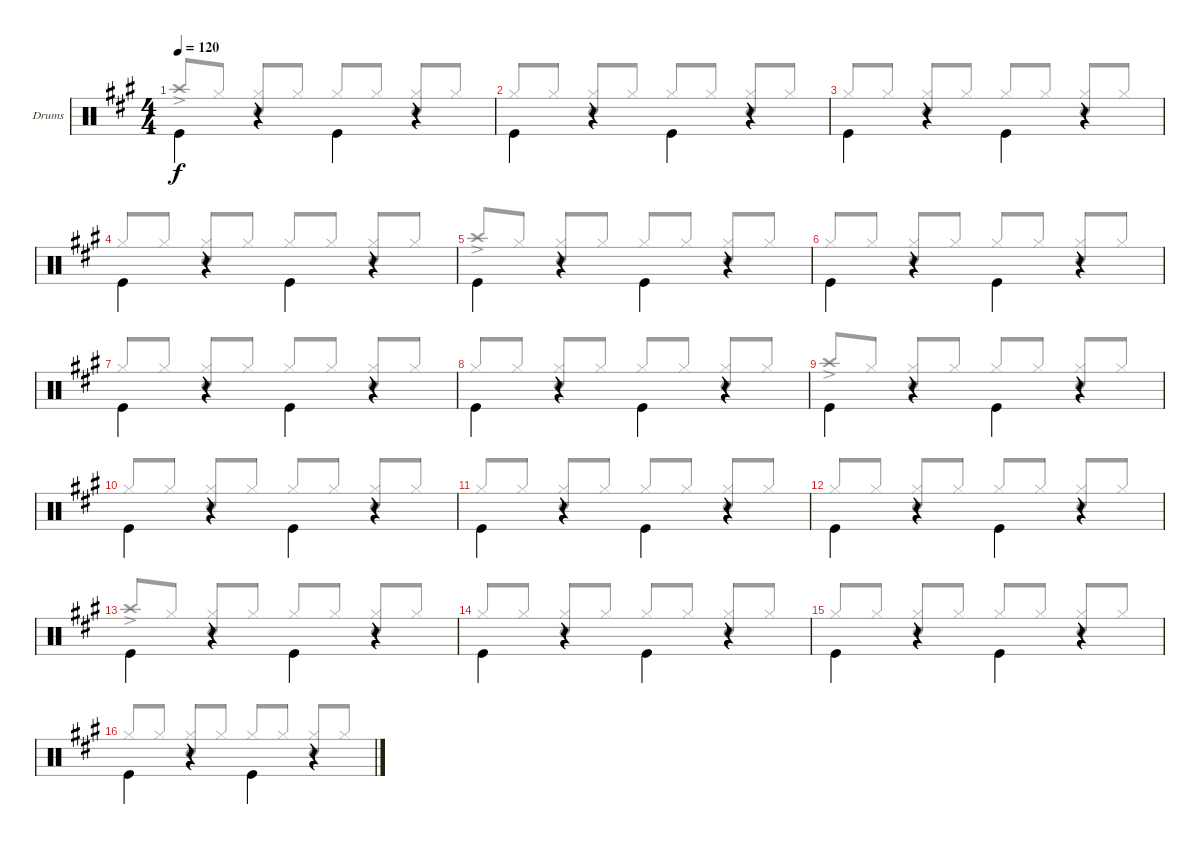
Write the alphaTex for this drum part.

\bracketExtendMode groupsimilarinstruments
\firstSystemTrackNameOrientation horizontal
\otherSystemsTrackNameOrientation horizontal
\track ("Drum" "Drums") {instrument percussion}
\staff {score}
\articulation defaults
\voice
\ts (4 4)
\tempo 120
\clef neutral
\scale
1.05801
\ks a "Kick (hit)".4{dy f beam invert}
r.4 "Kick (hit)".4{beam invert} r.4 |
\scale
0.941992 "Kick (hit)".4{beam invert} r.4 "Kick (hit)".4{beam invert} r.4 |
\scale
1.05801 "Kick (hit)".4{beam invert} r.4 "Kick (hit)".4{beam invert} r.4 |
\scale
0.941992 "Kick (hit)".4{beam invert} r.4 "Kick (hit)".4{beam invert} r.4 |
\scale
1.05801 "Kick (hit)".4{beam invert} r.4 "Kick (hit)".4{beam invert} r.4 |
\scale
0.941992 "Kick (hit)".4{beam invert} r.4 "Kick (hit)".4{beam invert} r.4 |
\scale
1.05801 "Kick (hit)".4{beam invert} r.4 "Kick (hit)".4{beam invert} r.4 |
\scale
0.941992 "Kick (hit)".4{beam invert} r.4 "Kick (hit)".4{beam invert} r.4 |
\scale
1.05801 "Kick (hit)".4{beam invert} r.4 "Kick (hit)".4{beam invert} r.4 |
\scale
0.941992 "Kick (hit)".4{beam invert} r.4 "Kick (hit)".4{beam invert} r.4 |
\scale
1.05801 "Kick (hit)".4{beam invert} r.4 "Kick (hit)".4{beam invert} r.4 |
\scale
0.941992 "Kick (hit)".4{beam invert} r.4 "Kick (hit)".4{beam invert} r.4 |
\scale
1.05801 "Kick (hit)".4{beam invert} r.4 "Kick (hit)".4{beam invert} r.4 |
\scale
0.941992 "Kick (hit)".4{beam invert} r.4 "Kick (hit)".4{beam invert} r.4 |
\scale
1.05801 "Kick (hit)".4{beam invert} r.4 "Kick (hit)".4{beam invert} r.4 |
\scale
0.941992 "Kick (hit)".4{beam invert} r.4 "Kick (hit)".4{beam invert} r.4
\voice
\clef neutral
\ottava regular
\simile none
\scale
1.05801
\ks a "Crash high (hit)"{ac}.8{dy f beam invert} "Hi-Hat (closed)".8
("Hi-Hat (closed)" "Snare (hit) 2").8{beam invert} "Hi-Hat (closed)".8 "Hi-Hat (closed)".8{beam invert} "Hi-Hat (closed)".8 ("Hi-Hat (closed)" "Snare (hit) 2").8{beam invert} "Hi-Hat (closed)".8 |
\scale
0.941992 "Hi-Hat (closed)".8{beam invert} "Hi-Hat (closed)".8 ("Hi-Hat (closed)" "Snare (hit) 2").8{beam invert} "Hi-Hat (closed)".8 "Hi-Hat (closed)".8{beam invert} "Hi-Hat (closed)".8 ("Hi-Hat (closed)" "Snare (hit) 2").8{beam invert} "Hi-Hat (closed)".8 |
\scale
1.05801 "Hi-Hat (closed)".8{beam invert} "Hi-Hat (closed)".8 ("Hi-Hat (closed)" "Snare (hit) 2").8{beam invert} "Hi-Hat (closed)".8 "Hi-Hat (closed)".8{beam invert} "Hi-Hat (closed)".8 ("Hi-Hat (closed)" "Snare (hit) 2").8{beam invert} "Hi-Hat (closed)".8 |
\scale
0.941992 "Hi-Hat (closed)".8{beam invert} "Hi-Hat (closed)".8 ("Hi-Hat (closed)" "Snare (hit) 2").8{beam invert} "Hi-Hat (closed)".8 "Hi-Hat (closed)".8{beam invert} "Hi-Hat (closed)".8 ("Hi-Hat (closed)" "Snare (hit) 2").8{beam invert} "Hi-Hat (closed)".8 |
\scale
1.05801 "Crash high (hit)"{ac}.8{beam invert} "Hi-Hat (closed)".8 ("Hi-Hat (closed)" "Snare (hit) 2").8{beam invert} "Hi-Hat (closed)".8 "Hi-Hat (closed)".8{beam invert} "Hi-Hat (closed)".8 ("Hi-Hat (closed)" "Snare (hit) 2").8{beam invert} "Hi-Hat (closed)".8 |
\scale
0.941992 "Hi-Hat (closed)".8{beam invert} "Hi-Hat (closed)".8 ("Hi-Hat (closed)" "Snare (hit) 2").8{beam invert} "Hi-Hat (closed)".8 "Hi-Hat (closed)".8{beam invert} "Hi-Hat (closed)".8 ("Hi-Hat (closed)" "Snare (hit) 2").8{beam invert} "Hi-Hat (closed)".8 |
\scale
1.05801 "Hi-Hat (closed)".8{beam invert} "Hi-Hat (closed)".8 ("Hi-Hat (closed)" "Snare (hit) 2").8{beam invert} "Hi-Hat (closed)".8 "Hi-Hat (closed)".8{beam invert} "Hi-Hat (closed)".8 ("Hi-Hat (closed)" "Snare (hit) 2").8{beam invert} "Hi-Hat (closed)".8 |
\scale
0.941992 "Hi-Hat (closed)".8{beam invert} "Hi-Hat (closed)".8 ("Hi-Hat (closed)" "Snare (hit) 2").8{beam invert} "Hi-Hat (closed)".8 "Hi-Hat (closed)".8{beam invert} "Hi-Hat (closed)".8 ("Hi-Hat (closed)" "Snare (hit) 2").8{beam invert} "Hi-Hat (closed)".8 |
\scale
1.05801 "Crash high (hit)"{ac}.8{beam invert} "Hi-Hat (closed)".8 ("Hi-Hat (closed)" "Snare (hit) 2").8{beam invert} "Hi-Hat (closed)".8 "Hi-Hat (closed)".8{beam invert} "Hi-Hat (closed)".8 ("Hi-Hat (closed)" "Snare (hit) 2").8{beam invert} "Hi-Hat (closed)".8 |
\scale
0.941992 "Hi-Hat (closed)".8{beam invert} "Hi-Hat (closed)".8 ("Hi-Hat (closed)" "Snare (hit) 2").8{beam invert} "Hi-Hat (closed)".8 "Hi-Hat (closed)".8{beam invert} "Hi-Hat (closed)".8 ("Hi-Hat (closed)" "Snare (hit) 2").8{beam invert} "Hi-Hat (closed)".8 |
\scale
1.05801 "Hi-Hat (closed)".8{beam invert} "Hi-Hat (closed)".8 ("Hi-Hat (closed)" "Snare (hit) 2").8{beam invert} "Hi-Hat (closed)".8 "Hi-Hat (closed)".8{beam invert} "Hi-Hat (closed)".8 ("Hi-Hat (closed)" "Snare (hit) 2").8{beam invert} "Hi-Hat (closed)".8 |
\scale
0.941992 "Hi-Hat (closed)".8{beam invert} "Hi-Hat (closed)".8 ("Hi-Hat (closed)" "Snare (hit) 2").8{beam invert} "Hi-Hat (closed)".8 "Hi-Hat (closed)".8{beam invert} "Hi-Hat (closed)".8 ("Hi-Hat (closed)" "Snare (hit) 2").8{beam invert} "Hi-Hat (closed)".8 |
\scale
1.05801 "Crash high (hit)"{ac}.8{beam invert} "Hi-Hat (closed)".8 ("Hi-Hat (closed)" "Snare (hit) 2").8{beam invert} "Hi-Hat (closed)".8 "Hi-Hat (closed)".8{beam invert} "Hi-Hat (closed)".8 ("Hi-Hat (closed)" "Snare (hit) 2").8{beam invert} "Hi-Hat (closed)".8 |
\scale
0.941992 "Hi-Hat (closed)".8{beam invert} "Hi-Hat (closed)".8 ("Hi-Hat (closed)" "Snare (hit) 2").8{beam invert} "Hi-Hat (closed)".8 "Hi-Hat (closed)".8{beam invert} "Hi-Hat (closed)".8 ("Hi-Hat (closed)" "Snare (hit) 2").8{beam invert} "Hi-Hat (closed)".8 |
\scale
1.05801 "Hi-Hat (closed)".8{beam invert} "Hi-Hat (closed)".8 ("Hi-Hat (closed)" "Snare (hit) 2").8{beam invert} "Hi-Hat (closed)".8 "Hi-Hat (closed)".8{beam invert} "Hi-Hat (closed)".8 ("Hi-Hat (closed)" "Snare (hit) 2").8{beam invert} "Hi-Hat (closed)".8 |
\scale
0.941992 "Hi-Hat (closed)".8{beam invert} "Hi-Hat (closed)".8 ("Hi-Hat (closed)" "Snare (hit) 2").8{beam invert} "Hi-Hat (closed)".8 "Hi-Hat (closed)".8{beam invert} "Hi-Hat (closed)".8 ("Hi-Hat (closed)" "Snare (hit) 2").8{beam invert} "Hi-Hat (closed)".8
